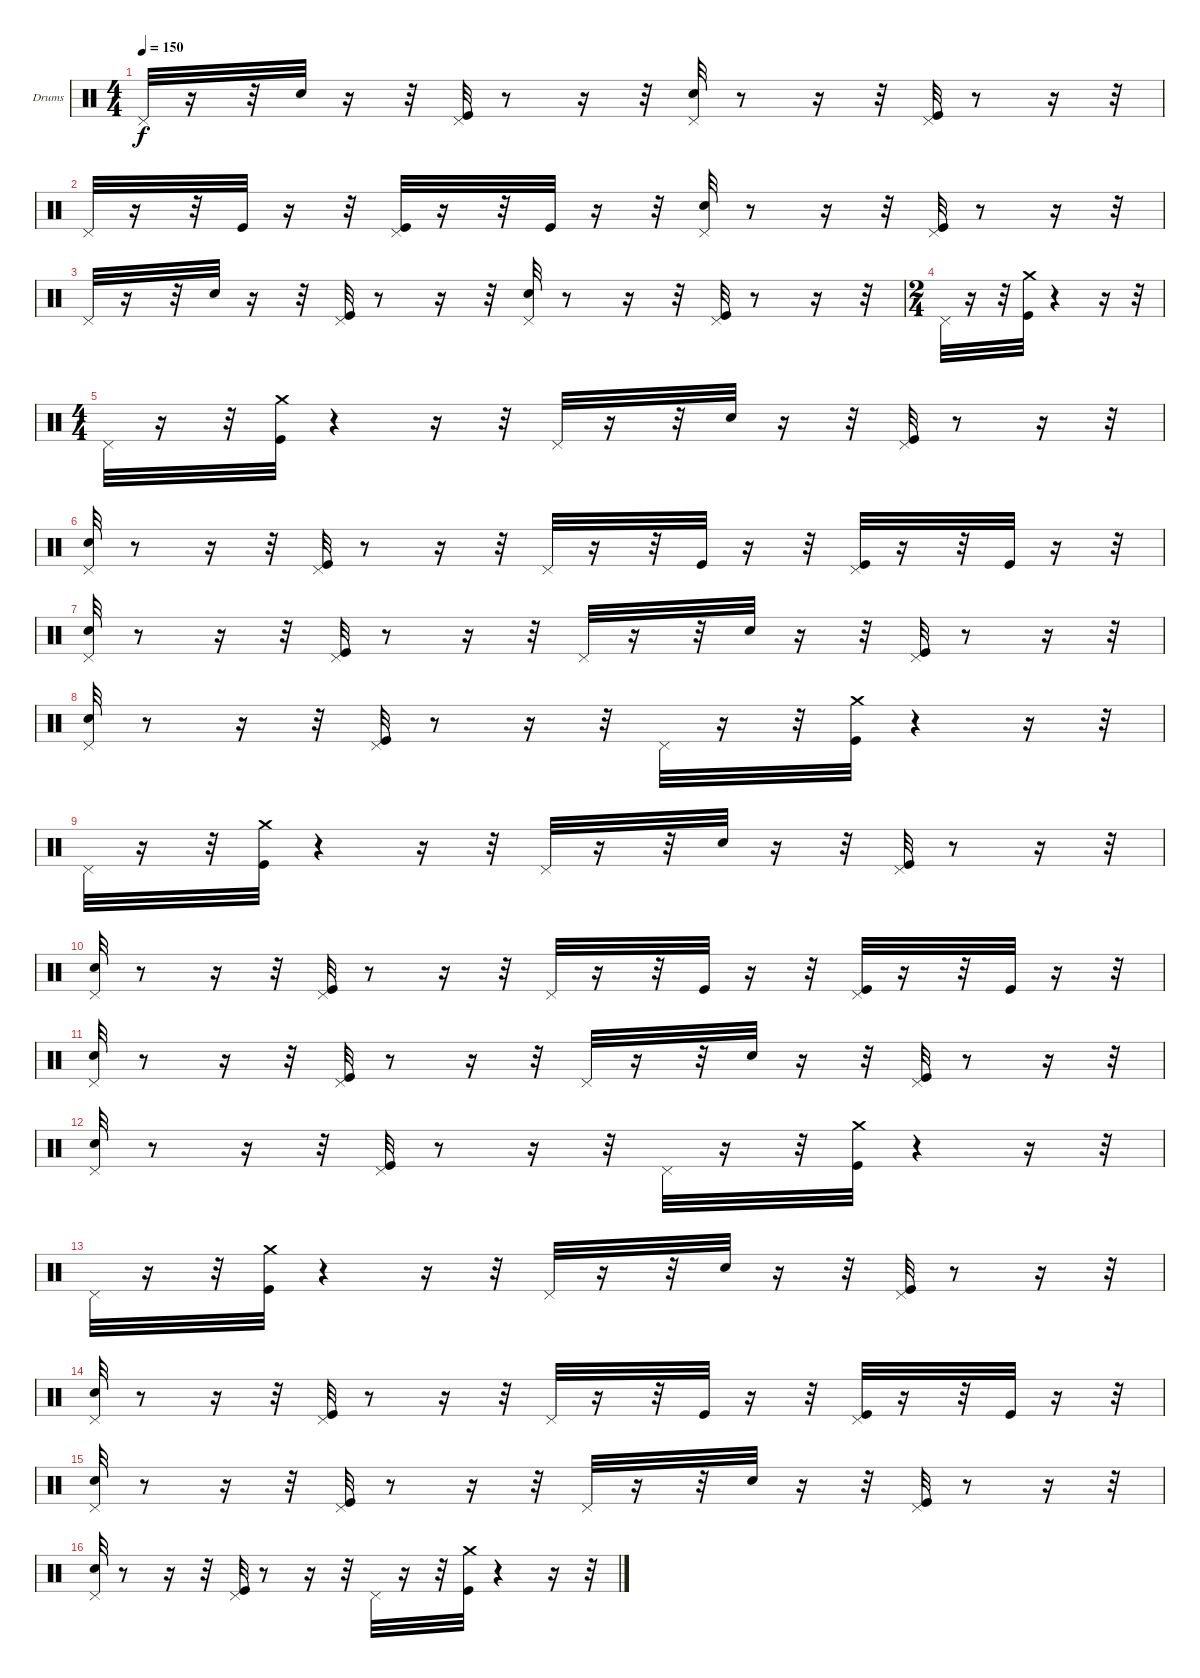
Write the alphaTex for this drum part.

\bracketExtendMode groupsimilarinstruments
\firstSystemTrackNameOrientation horizontal
\otherSystemsTrackNameOrientation horizontal
\track ("Drumkit" "Drums") {instrument percussion}
\staff {score}
\articulation defaults
\ts (4 4)
\tempo 150
\clef neutral
\ks c "Pedal Hi-Hat (hit)".32{dy f}
r.16 r.32 "Snare (hit) 2".32 r.16 r.32 ("Pedal Hi-Hat (hit)" "Kick (hit)").32 r.8 r.16 r.32 ("Snare (hit) 2" "Pedal Hi-Hat (hit)").32 r.8 r.16 r.32 ("Pedal Hi-Hat (hit)" "Kick (hit)").32 r.8 r.16 r.32 |
"Pedal Hi-Hat (hit)".32 r.16 r.32 "Kick (hit)".32 r.16 r.32 ("Pedal Hi-Hat (hit)" "Kick (hit)").32 r.16 r.32 "Kick (hit)".32 r.16 r.32 ("Pedal Hi-Hat (hit)" "Snare (hit) 2").32 r.8 r.16 r.32 ("Pedal Hi-Hat (hit)" "Kick (hit)").32 r.8 r.16 r.32 |
"Pedal Hi-Hat (hit)".32 r.16 r.32 "Snare (hit) 2".32 r.16 r.32 ("Pedal Hi-Hat (hit)" "Kick (hit)").32 r.8 r.16 r.32 ("Pedal Hi-Hat (hit)" "Snare (hit) 2").32 r.8 r.16 r.32 ("Pedal Hi-Hat (hit)" "Kick (hit)").32 r.8 r.16 r.32 |
\ts (2 4)
"Pedal Hi-Hat (hit)".32 r.16 r.32 ("Crash medium (hit)" "Kick (hit)").32 r.4 r.16 r.32 |
\ts (4 4)
"Pedal Hi-Hat (hit)".32 r.16 r.32 ("Crash medium (hit)" "Kick (hit)").32 r.4 r.16 r.32 "Pedal Hi-Hat (hit)".32 r.16 r.32 "Snare (hit) 2".32 r.16 r.32 ("Pedal Hi-Hat (hit)" "Kick (hit)").32 r.8 r.16 r.32 |
("Snare (hit) 2" "Pedal Hi-Hat (hit)").32 r.8 r.16 r.32 ("Pedal Hi-Hat (hit)" "Kick (hit)").32 r.8 r.16 r.32 "Pedal Hi-Hat (hit)".32 r.16 r.32 "Kick (hit)".32 r.16 r.32 ("Pedal Hi-Hat (hit)" "Kick (hit)").32 r.16 r.32 "Kick (hit)".32 r.16 r.32 |
("Pedal Hi-Hat (hit)" "Snare (hit) 2").32 r.8 r.16 r.32 ("Pedal Hi-Hat (hit)" "Kick (hit)").32 r.8 r.16 r.32 "Pedal Hi-Hat (hit)".32 r.16 r.32 "Snare (hit) 2".32 r.16 r.32 ("Pedal Hi-Hat (hit)" "Kick (hit)").32 r.8 r.16 r.32 |
("Pedal Hi-Hat (hit)" "Snare (hit) 2").32 r.8 r.16 r.32 ("Pedal Hi-Hat (hit)" "Kick (hit)").32 r.8 r.16 r.32 "Pedal Hi-Hat (hit)".32 r.16 r.32 ("Crash medium (hit)" "Kick (hit)").32 r.4 r.16 r.32 |
"Pedal Hi-Hat (hit)".32 r.16 r.32 ("Crash medium (hit)" "Kick (hit)").32 r.4 r.16 r.32 "Pedal Hi-Hat (hit)".32 r.16 r.32 "Snare (hit) 2".32 r.16 r.32 ("Pedal Hi-Hat (hit)" "Kick (hit)").32 r.8 r.16 r.32 |
("Snare (hit) 2" "Pedal Hi-Hat (hit)").32 r.8 r.16 r.32 ("Pedal Hi-Hat (hit)" "Kick (hit)").32 r.8 r.16 r.32 "Pedal Hi-Hat (hit)".32 r.16 r.32 "Kick (hit)".32 r.16 r.32 ("Pedal Hi-Hat (hit)" "Kick (hit)").32 r.16 r.32 "Kick (hit)".32 r.16 r.32 |
("Pedal Hi-Hat (hit)" "Snare (hit) 2").32 r.8 r.16 r.32 ("Pedal Hi-Hat (hit)" "Kick (hit)").32 r.8 r.16 r.32 "Pedal Hi-Hat (hit)".32 r.16 r.32 "Snare (hit) 2".32 r.16 r.32 ("Pedal Hi-Hat (hit)" "Kick (hit)").32 r.8 r.16 r.32 |
("Pedal Hi-Hat (hit)" "Snare (hit) 2").32 r.8 r.16 r.32 ("Pedal Hi-Hat (hit)" "Kick (hit)").32 r.8 r.16 r.32 "Pedal Hi-Hat (hit)".32 r.16 r.32 ("Crash medium (hit)" "Kick (hit)").32 r.4 r.16 r.32 |
"Pedal Hi-Hat (hit)".32 r.16 r.32 ("Crash medium (hit)" "Kick (hit)").32 r.4 r.16 r.32 "Pedal Hi-Hat (hit)".32 r.16 r.32 "Snare (hit) 2".32 r.16 r.32 ("Pedal Hi-Hat (hit)" "Kick (hit)").32 r.8 r.16 r.32 |
("Snare (hit) 2" "Pedal Hi-Hat (hit)").32 r.8 r.16 r.32 ("Pedal Hi-Hat (hit)" "Kick (hit)").32 r.8 r.16 r.32 "Pedal Hi-Hat (hit)".32 r.16 r.32 "Kick (hit)".32 r.16 r.32 ("Pedal Hi-Hat (hit)" "Kick (hit)").32 r.16 r.32 "Kick (hit)".32 r.16 r.32 |
("Pedal Hi-Hat (hit)" "Snare (hit) 2").32 r.8 r.16 r.32 ("Pedal Hi-Hat (hit)" "Kick (hit)").32 r.8 r.16 r.32 "Pedal Hi-Hat (hit)".32 r.16 r.32 "Snare (hit) 2".32 r.16 r.32 ("Pedal Hi-Hat (hit)" "Kick (hit)").32 r.8 r.16 r.32 |
("Pedal Hi-Hat (hit)" "Snare (hit) 2").32 r.8 r.16 r.32 ("Pedal Hi-Hat (hit)" "Kick (hit)").32 r.8 r.16 r.32 "Pedal Hi-Hat (hit)".32 r.16 r.32 ("Crash medium (hit)" "Kick (hit)").32 r.4 r.16 r.32
